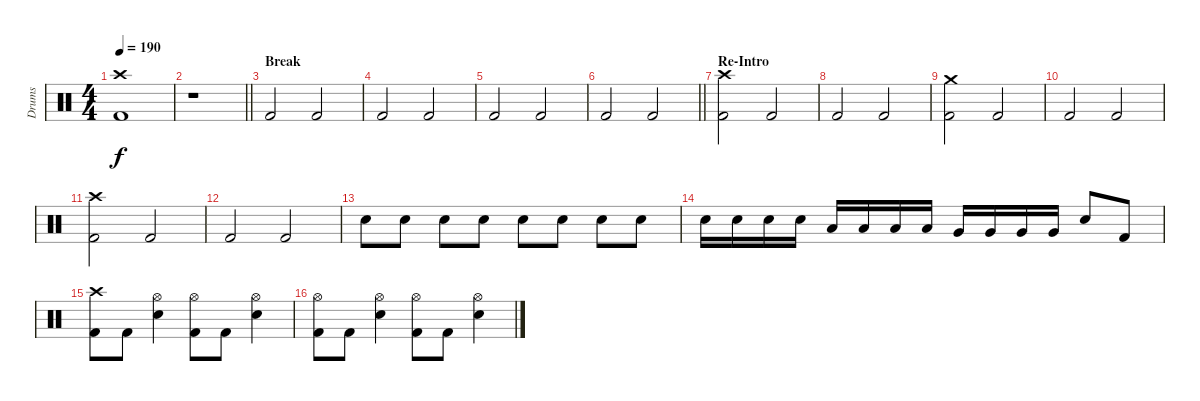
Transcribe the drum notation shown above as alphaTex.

\track ("Drums" "Drums") {instrument percussion}
\staff {score}
\articulation defaults
\ts (4 4)
\tempo 190
\clef neutral
\ks c
("Crash high (hit)" "Kick (hit) 2").1{dy f} |
\barLineRight lightlight
r.1 |
\section ("" "Break")
"Kick (hit) 2".2 "Kick (hit) 2".2 |
"Kick (hit) 2".2 "Kick (hit) 2".2 |
"Kick (hit) 2".2 "Kick (hit) 2".2 |
\barLineRight lightlight "Kick (hit) 2".2 "Kick (hit) 2".2
|
\section ("" "Re-Intro")
("Crash high (hit)" "Kick (hit) 2").2 "Kick (hit) 2".2 |
"Kick (hit) 2".2 "Kick (hit) 2".2 |
("Crash medium (hit)" "Kick (hit) 2").2 "Kick (hit) 2".2 |
"Kick (hit) 2".2 "Kick (hit) 2".2 |
("Crash high (hit)" "Kick (hit) 2").2 "Kick (hit) 2".2 |
"Kick (hit) 2".2 "Kick (hit) 2".2 |
"Snare (hit) 2".8 "Snare (hit) 2".8 "Snare (hit) 2".8 "Snare (hit) 2".8 "Snare (hit) 2".8 "Snare (hit) 2".8 "Snare (hit) 2".8 "Snare (hit) 2".8 |
"Snare (hit) 2".16 "Snare (hit) 2".16 "Snare (hit) 2".16 "Snare (hit) 2".16 "Low Tom (hit)".16 "Low Tom (hit)".16 "Low Tom (hit)".16 "Low Tom (hit)".16 "Very Low Tom (hit)".16 "Very Low Tom (hit)".16 "Very Low Tom (hit)".16 "Very Low Tom (hit)".16 "Snare (hit) 2".8 "Kick (hit) 2".8 |
("Crash high (hit)" "Kick (hit) 2").8 "Kick (hit) 2".8 ("Hi-Hat (open)" "Snare (hit) 2").4 ("Hi-Hat (open)" "Kick (hit) 2").8 "Kick (hit) 2".8 ("Hi-Hat (open)" "Snare (hit) 2").4 |
("Hi-Hat (open)" "Kick (hit) 2").8 "Kick (hit) 2".8 ("Hi-Hat (open)" "Snare (hit) 2").4 ("Hi-Hat (open)" "Kick (hit) 2").8 "Kick (hit) 2".8 ("Hi-Hat (open)" "Snare (hit) 2").4
